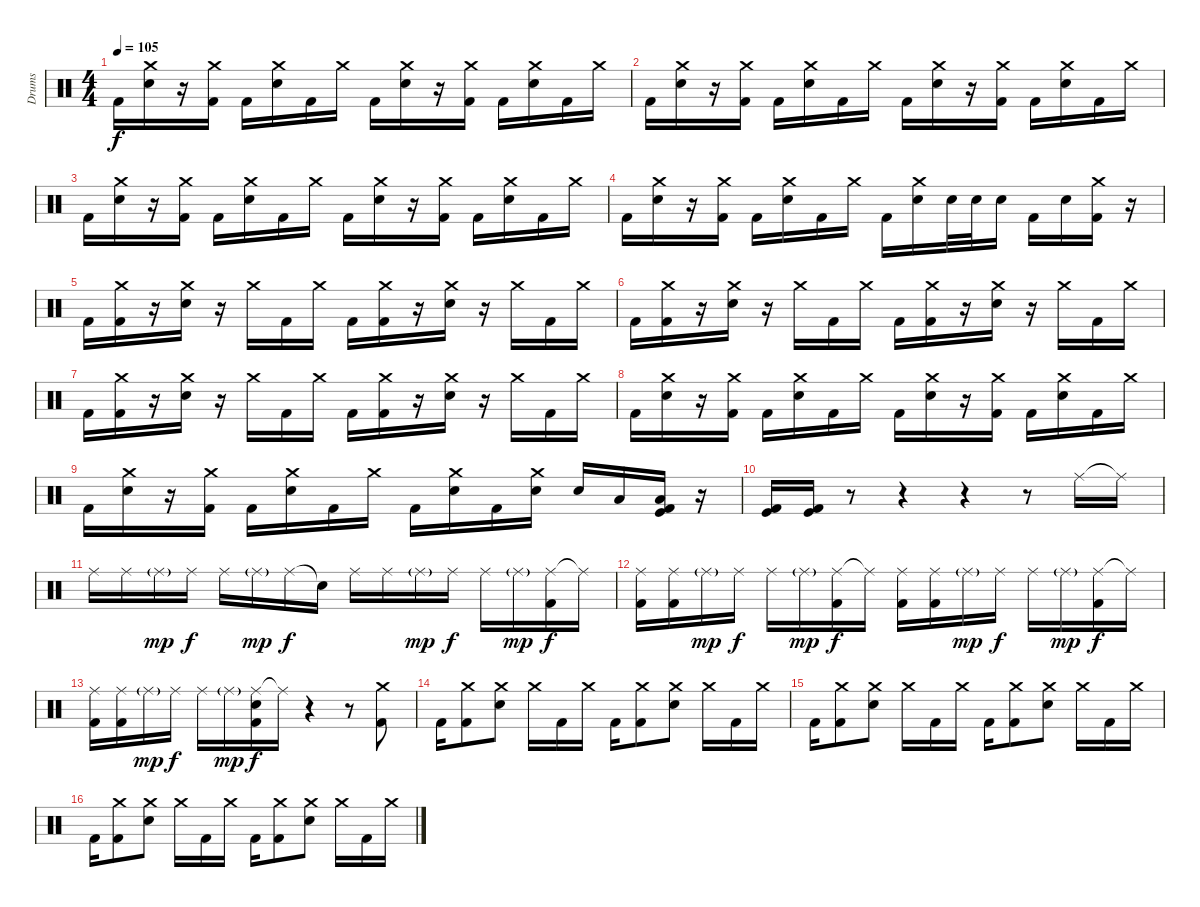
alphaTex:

\track ("Drums" "Drums") {instrument percussion}
\staff {score}
\articulation defaults
\ts (4 4)
\tempo 105
\clef neutral
\ks c "Kick (hit) 2".16{dy f}
("Crash medium (hit)" "Electric Snare (hit)").16 r.16 ("Crash medium (hit)" "Kick (hit) 2").16 "Kick (hit) 2".16 ("Crash medium (hit)" "Electric Snare (hit)").16 "Kick (hit) 2".16 "Crash medium (hit)".16 "Kick (hit) 2".16 ("Crash medium (hit)" "Electric Snare (hit)").16 r.16 ("Crash medium (hit)" "Kick (hit) 2").16 "Kick (hit) 2".16 ("Crash medium (hit)" "Electric Snare (hit)").16 "Kick (hit) 2".16 "Crash medium (hit)".16 |
"Kick (hit) 2".16 ("Crash medium (hit)" "Electric Snare (hit)").16 r.16 ("Crash medium (hit)" "Kick (hit) 2").16 "Kick (hit) 2".16 ("Crash medium (hit)" "Electric Snare (hit)").16 "Kick (hit) 2".16 "Crash medium (hit)".16 "Kick (hit) 2".16 ("Crash medium (hit)" "Electric Snare (hit)").16 r.16 ("Crash medium (hit)" "Kick (hit) 2").16 "Kick (hit) 2".16 ("Crash medium (hit)" "Electric Snare (hit)").16 "Kick (hit) 2".16 "Crash medium (hit)".16 |
"Kick (hit) 2".16 ("Crash medium (hit)" "Electric Snare (hit)").16 r.16 ("Crash medium (hit)" "Kick (hit) 2").16 "Kick (hit) 2".16 ("Crash medium (hit)" "Electric Snare (hit)").16 "Kick (hit) 2".16 "Crash medium (hit)".16 "Kick (hit) 2".16 ("Crash medium (hit)" "Electric Snare (hit)").16 r.16 ("Crash medium (hit)" "Kick (hit) 2").16 "Kick (hit) 2".16 ("Crash medium (hit)" "Electric Snare (hit)").16 "Kick (hit) 2".16 "Crash medium (hit)".16 |
"Kick (hit) 2".16 ("Crash medium (hit)" "Electric Snare (hit)").16 r.16 ("Crash medium (hit)" "Kick (hit) 2").16 "Kick (hit) 2".16 ("Crash medium (hit)" "Electric Snare (hit)").16 "Kick (hit) 2".16 "Crash medium (hit)".16 "Kick (hit) 2".16 ("Crash medium (hit)" "Electric Snare (hit)").16 "Electric Snare (hit)".32 "Electric Snare (hit)".32 "Electric Snare (hit)".16 "Kick (hit) 2".16 "Electric Snare (hit)".16 ("Crash medium (hit)" "Kick (hit) 2").16 r.16 |
"Kick (hit) 2".16 ("Crash medium (hit)" "Kick (hit) 2").16 r.16 ("Crash medium (hit)" "Electric Snare (hit)").16 r.16 "Crash medium (hit)".16 "Kick (hit) 2".16 "Crash medium (hit)".16 "Kick (hit) 2".16 ("Crash medium (hit)" "Kick (hit) 2").16 r.16 ("Crash medium (hit)" "Electric Snare (hit)").16 r.16 "Crash medium (hit)".16 "Kick (hit) 2".16 "Crash medium (hit)".16 |
"Kick (hit) 2".16 ("Crash medium (hit)" "Kick (hit) 2").16 r.16 ("Crash medium (hit)" "Electric Snare (hit)").16 r.16 "Crash medium (hit)".16 "Kick (hit) 2".16 "Crash medium (hit)".16 "Kick (hit) 2".16 ("Crash medium (hit)" "Kick (hit) 2").16 r.16 ("Crash medium (hit)" "Electric Snare (hit)").16 r.16 "Crash medium (hit)".16 "Kick (hit) 2".16 "Crash medium (hit)".16 |
"Kick (hit) 2".16 ("Crash medium (hit)" "Kick (hit) 2").16 r.16 ("Crash medium (hit)" "Electric Snare (hit)").16 r.16 "Crash medium (hit)".16 "Kick (hit) 2".16 "Crash medium (hit)".16 "Kick (hit) 2".16 ("Crash medium (hit)" "Kick (hit) 2").16 r.16 ("Crash medium (hit)" "Electric Snare (hit)").16 r.16 "Crash medium (hit)".16 "Kick (hit) 2".16 "Crash medium (hit)".16 |
"Kick (hit) 2".16 ("Crash medium (hit)" "Electric Snare (hit)").16 r.16 ("Crash medium (hit)" "Kick (hit) 2").16 "Kick (hit) 2".16 ("Crash medium (hit)" "Electric Snare (hit)").16 "Kick (hit) 2".16 "Crash medium (hit)".16 "Kick (hit) 2".16 ("Crash medium (hit)" "Electric Snare (hit)").16 r.16 ("Crash medium (hit)" "Kick (hit) 2").16 "Kick (hit) 2".16 ("Crash medium (hit)" "Electric Snare (hit)").16 "Kick (hit) 2".16 "Crash medium (hit)".16 |
"Kick (hit) 2".16 ("Crash medium (hit)" "Electric Snare (hit)").16 r.16 ("Crash medium (hit)" "Kick (hit) 2").16 "Kick (hit) 2".16 ("Crash medium (hit)" "Electric Snare (hit)").16 "Kick (hit) 2".16 "Crash medium (hit)".16 "Kick (hit) 2".16 ("Crash medium (hit)" "Electric Snare (hit)").16 "Kick (hit) 2".16 ("Crash medium (hit)" "Electric Snare (hit)").16 "Electric Snare (hit)".16 "Low Tom (hit)".16 ("Kick (hit)" "Low Floor Tom (hit)" "Kick (hit) 2").16 r.16 |
("Kick (hit)" "Kick (hit) 2").16 ("Kick (hit)" "Kick (hit) 2").16 r.8 r.4 r.4 r.8 "Ride (middle)".16 "Ride (middle)"{t}.16 |
"Ride (middle)".16 "Ride (middle)".16 "Ride (middle)"{g}.16{dy mp} "Ride (middle)".16{dy f} "Ride (middle)".16 "Ride (middle)"{g}.16{dy mp} "Ride (middle)".16{dy f} "Snare (hit)"{t}.16 "Ride (middle)".16 "Ride (middle)".16 "Ride (middle)"{g}.16{dy mp} "Ride (middle)".16{dy f} "Ride (middle)".16 "Ride (middle)"{g}.16{dy mp} ("Ride (middle)" "Kick (hit) 2").16{dy f} "Ride (middle)"{t}.16 |
("Ride (middle)" "Kick (hit) 2").16 ("Ride (middle)" "Kick (hit) 2").16 "Ride (middle)"{g}.16{dy mp} "Ride (middle)".16{dy f} "Ride (middle)".16 "Ride (middle)"{g}.16{dy mp} ("Ride (middle)" "Kick (hit) 2").16{dy f} "Ride (middle)"{t}.16 ("Ride (middle)" "Kick (hit) 2").16 ("Ride (middle)" "Kick (hit) 2").16 "Ride (middle)"{g}.16{dy mp} "Ride (middle)".16{dy f} "Ride (middle)".16 "Ride (middle)"{g}.16{dy mp} ("Ride (middle)" "Kick (hit) 2").16{dy f} "Ride (middle)"{t}.16 |
("Ride (middle)" "Kick (hit) 2").16 ("Ride (middle)" "Kick (hit) 2").16 "Ride (middle)"{g}.16{dy mp} "Ride (middle)".16{dy f} "Ride (middle)".16 "Ride (middle)"{g}.16{dy mp} ("Ride (middle)" "Electric Snare (hit)" "Kick (hit) 2").16{dy f} "Ride (middle)"{t}.16 r.4 r.8 ("Crash medium (hit)" "Kick (hit) 2").8 |
"Kick (hit) 2".16 ("Crash medium (hit)" "Kick (hit) 2").8 ("Crash medium (hit)" "Electric Snare (hit)").8 "Crash medium (hit)".16 "Kick (hit) 2".16 "Crash medium (hit)".16 "Kick (hit) 2".16 ("Crash medium (hit)" "Kick (hit) 2").8 ("Crash medium (hit)" "Electric Snare (hit)").8 "Crash medium (hit)".16 "Kick (hit) 2".16 "Crash medium (hit)".16 |
"Kick (hit) 2".16 ("Crash medium (hit)" "Kick (hit) 2").8 ("Crash medium (hit)" "Electric Snare (hit)").8 "Crash medium (hit)".16 "Kick (hit) 2".16 "Crash medium (hit)".16 "Kick (hit) 2".16 ("Crash medium (hit)" "Kick (hit) 2").8 ("Crash medium (hit)" "Electric Snare (hit)").8 "Crash medium (hit)".16 "Kick (hit) 2".16 "Crash medium (hit)".16 |
"Kick (hit) 2".16 ("Crash medium (hit)" "Kick (hit) 2").8 ("Crash medium (hit)" "Electric Snare (hit)").8 "Crash medium (hit)".16 "Kick (hit) 2".16 "Crash medium (hit)".16 "Kick (hit) 2".16 ("Crash medium (hit)" "Kick (hit) 2").8 ("Crash medium (hit)" "Electric Snare (hit)").8 "Crash medium (hit)".16 "Kick (hit) 2".16 "Crash medium (hit)".16
